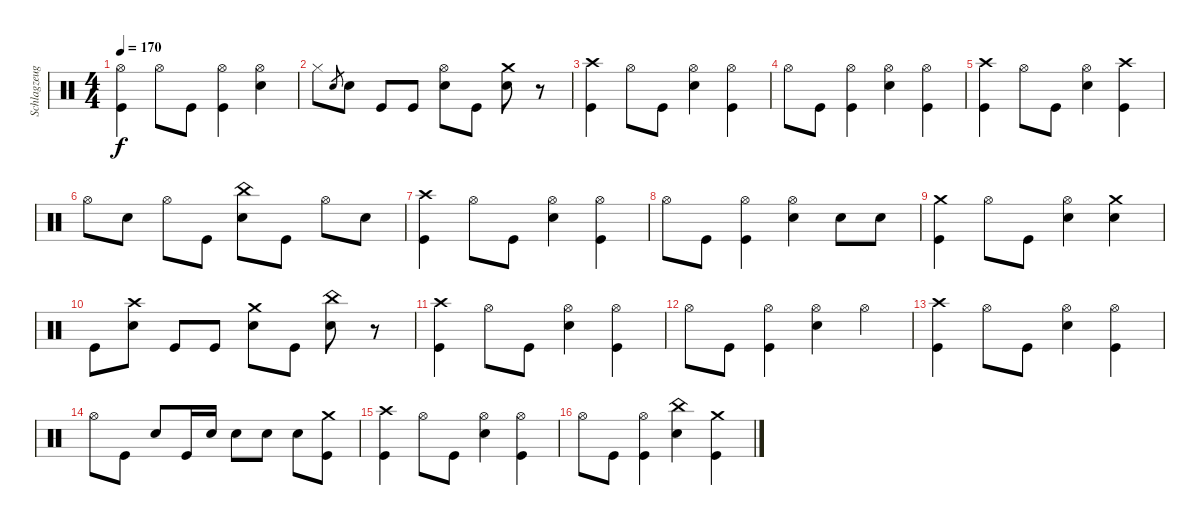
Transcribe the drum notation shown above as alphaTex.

\track ("Schlagzeug" "Schlagzeug") {instrument percussion}
\staff {score}
\articulation defaults
\ts (4 4)
\tempo 170
\clef neutral
\ks c
("Hi-Hat (open)" "Kick (hit)").4{dy f} "Hi-Hat (open)".8 "Kick (hit)".8 ("Hi-Hat (open)" "Kick (hit)").4 ("Hi-Hat (open)" "Electric Snare (hit)").4 |
"Hi-Hat (closed)".8 "Electric Snare (hit)".8{gr} "Electric Snare (hit)".8 "Kick (hit)".8 "Kick (hit)".8 ("Hi-Hat (open)" "Electric Snare (hit)").8 "Kick (hit)".8 ("Crash medium (hit)" "Electric Snare (hit)").8 r.8 |
("Crash high (hit)" "Kick (hit)").4 "Hi-Hat (open)".8 "Kick (hit)".8 ("Hi-Hat (open)" "Electric Snare (hit)").4 ("Hi-Hat (open)" "Kick (hit)").4 |
"Hi-Hat (open)".8 "Kick (hit)".8 ("Hi-Hat (open)" "Kick (hit)").4 ("Hi-Hat (open)" "Electric Snare (hit)").4 ("Hi-Hat (open)" "Kick (hit)").4 |
("Crash high (hit)" "Kick (hit)").4 "Hi-Hat (open)".8 "Kick (hit)".8 ("Hi-Hat (open)" "Electric Snare (hit)").4 ("Crash high (hit)" "Kick (hit)").4 |
"Hi-Hat (open)".8 "Electric Snare (hit)".8 "Hi-Hat (open)".8 "Kick (hit)".8 ("China (hit)" "Electric Snare (hit)").8 "Kick (hit)".8 "Hi-Hat (open)".8 "Electric Snare (hit)".8 |
("Crash high (hit)" "Kick (hit)").4 "Hi-Hat (open)".8 "Kick (hit)".8 ("Hi-Hat (open)" "Electric Snare (hit)").4 ("Hi-Hat (open)" "Kick (hit)").4 |
"Hi-Hat (open)".8 "Kick (hit)".8 ("Hi-Hat (open)" "Kick (hit)").4 ("Hi-Hat (open)" "Electric Snare (hit)").4 "Electric Snare (hit)".8 "Electric Snare (hit)".8 |
("Crash medium (hit)" "Kick (hit)").4 "Hi-Hat (open)".8 "Kick (hit)".8 ("Hi-Hat (open)" "Electric Snare (hit)").4 ("Crash medium (hit)" "Electric Snare (hit)").4 |
"Kick (hit)".8 ("Crash high (hit)" "Electric Snare (hit)").8 "Kick (hit)".8 "Kick (hit)".8 ("Crash medium (hit)" "Electric Snare (hit)").8 "Kick (hit)".8 ("China (hit)" "Electric Snare (hit)").8 r.8 |
("Crash high (hit)" "Kick (hit)").4 "Hi-Hat (open)".8 "Kick (hit)".8 ("Hi-Hat (open)" "Electric Snare (hit)").4 ("Hi-Hat (open)" "Kick (hit)").4 |
"Hi-Hat (open)".8 "Kick (hit)".8 ("Hi-Hat (open)" "Kick (hit)").4 ("Hi-Hat (open)" "Electric Snare (hit)").4 "Hi-Hat (open)".4 |
("Crash high (hit)" "Kick (hit)").4 "Hi-Hat (open)".8 "Kick (hit)".8 ("Hi-Hat (open)" "Electric Snare (hit)").4 ("Hi-Hat (open)" "Kick (hit)").4 |
"Hi-Hat (open)".8 "Kick (hit)".8 "Electric Snare (hit)".8 "Kick (hit)".16 "Electric Snare (hit)".16 "Electric Snare (hit)".8 "Electric Snare (hit)".8 "Electric Snare (hit)".8 ("Crash medium (hit)" "Kick (hit)").8 |
("Crash high (hit)" "Kick (hit)").4 "Hi-Hat (open)".8 "Kick (hit)".8 ("Hi-Hat (open)" "Electric Snare (hit)").4 ("Hi-Hat (open)" "Kick (hit)").4 |
"Hi-Hat (open)".8 "Kick (hit)".8 ("Hi-Hat (open)" "Kick (hit)").4 ("China (hit)" "Electric Snare (hit)").4 ("Crash medium (hit)" "Kick (hit)").4
